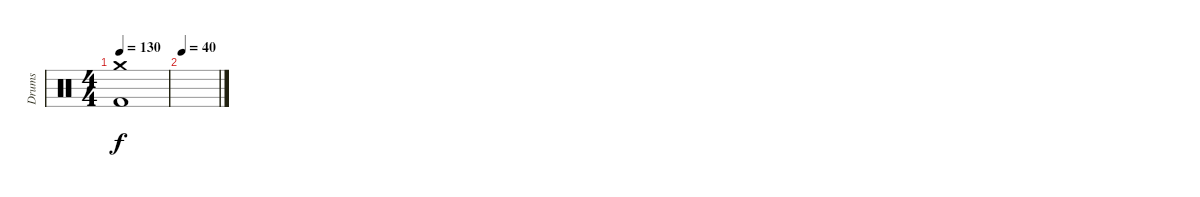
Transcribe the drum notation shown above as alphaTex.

\track ("Drums" "Drums") {instrument percussion}
\staff {score}
\articulation defaults
\ts (4 4)
\tempo 130
\clef neutral
\ks c
("Crash medium (hit)" "Kick (hit) 2").1{dy f} |
\tempo 40
